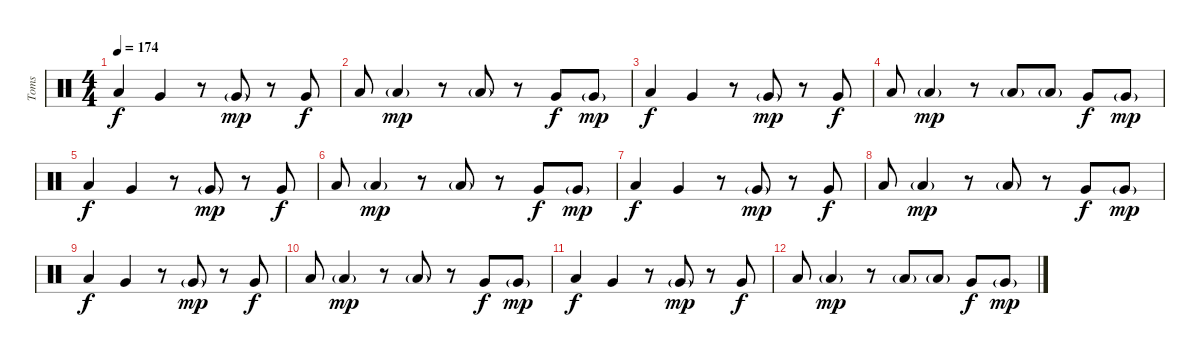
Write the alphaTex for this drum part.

\track ("Toms" "Toms") {instrument percussion}
\staff {score}
\articulation defaults
\ts (4 4)
\tempo 174
\clef neutral
\ks c "Low Tom (hit)".4{dy f} "Very Low Tom (hit)".4
r.8 "Very Low Tom (hit)"{g}.8{dy mp} r.8 "Very Low Tom (hit)".8{dy f} |
"Low Tom (hit)".8 "Low Floor Tom (hit)"{g}.4{dy mp} r.8 "Low Floor Tom (hit)"{g}.8 r.8 "Very Low Tom (hit)".8{dy f} "Very Low Tom (hit)"{g}.8{dy mp} |
"Low Tom (hit)".4{dy f} "Very Low Tom (hit)".4 r.8 "Very Low Tom (hit)"{g}.8{dy mp} r.8 "Very Low Tom (hit)".8{dy f} |
"Low Tom (hit)".8 "Low Floor Tom (hit)"{g}.4{dy mp} r.8 "Low Floor Tom (hit)"{g}.8 "Low Floor Tom (hit)"{g}.8 "Very Low Tom (hit)".8{dy f} "Very Low Tom (hit)"{g}.8{dy mp} |
"Low Tom (hit)".4{dy f} "Very Low Tom (hit)".4 r.8 "Very Low Tom (hit)"{g}.8{dy mp} r.8 "Very Low Tom (hit)".8{dy f} |
"Low Tom (hit)".8 "Low Floor Tom (hit)"{g}.4{dy mp} r.8 "Low Floor Tom (hit)"{g}.8 r.8 "Very Low Tom (hit)".8{dy f} "Very Low Tom (hit)"{g}.8{dy mp} |
"Low Tom (hit)".4{dy f} "Very Low Tom (hit)".4 r.8 "Very Low Tom (hit)"{g}.8{dy mp} r.8 "Very Low Tom (hit)".8{dy f} |
"Low Tom (hit)".8 "Low Floor Tom (hit)"{g}.4{dy mp} r.8 "Low Floor Tom (hit)"{g}.8 r.8 "Very Low Tom (hit)".8{dy f} "Very Low Tom (hit)"{g}.8{dy mp} |
"Low Tom (hit)".4{dy f} "Very Low Tom (hit)".4 r.8 "Very Low Tom (hit)"{g}.8{dy mp} r.8 "Very Low Tom (hit)".8{dy f} |
"Low Tom (hit)".8 "Low Floor Tom (hit)"{g}.4{dy mp} r.8 "Low Floor Tom (hit)"{g}.8 r.8 "Very Low Tom (hit)".8{dy f} "Very Low Tom (hit)"{g}.8{dy mp} |
"Low Tom (hit)".4{dy f} "Very Low Tom (hit)".4 r.8 "Very Low Tom (hit)"{g}.8{dy mp} r.8 "Very Low Tom (hit)".8{dy f} |
"Low Tom (hit)".8 "Low Floor Tom (hit)"{g}.4{dy mp} r.8 "Low Floor Tom (hit)"{g}.8 "Low Floor Tom (hit)"{g}.8 "Very Low Tom (hit)".8{dy f} "Very Low Tom (hit)"{g}.8{dy mp}
